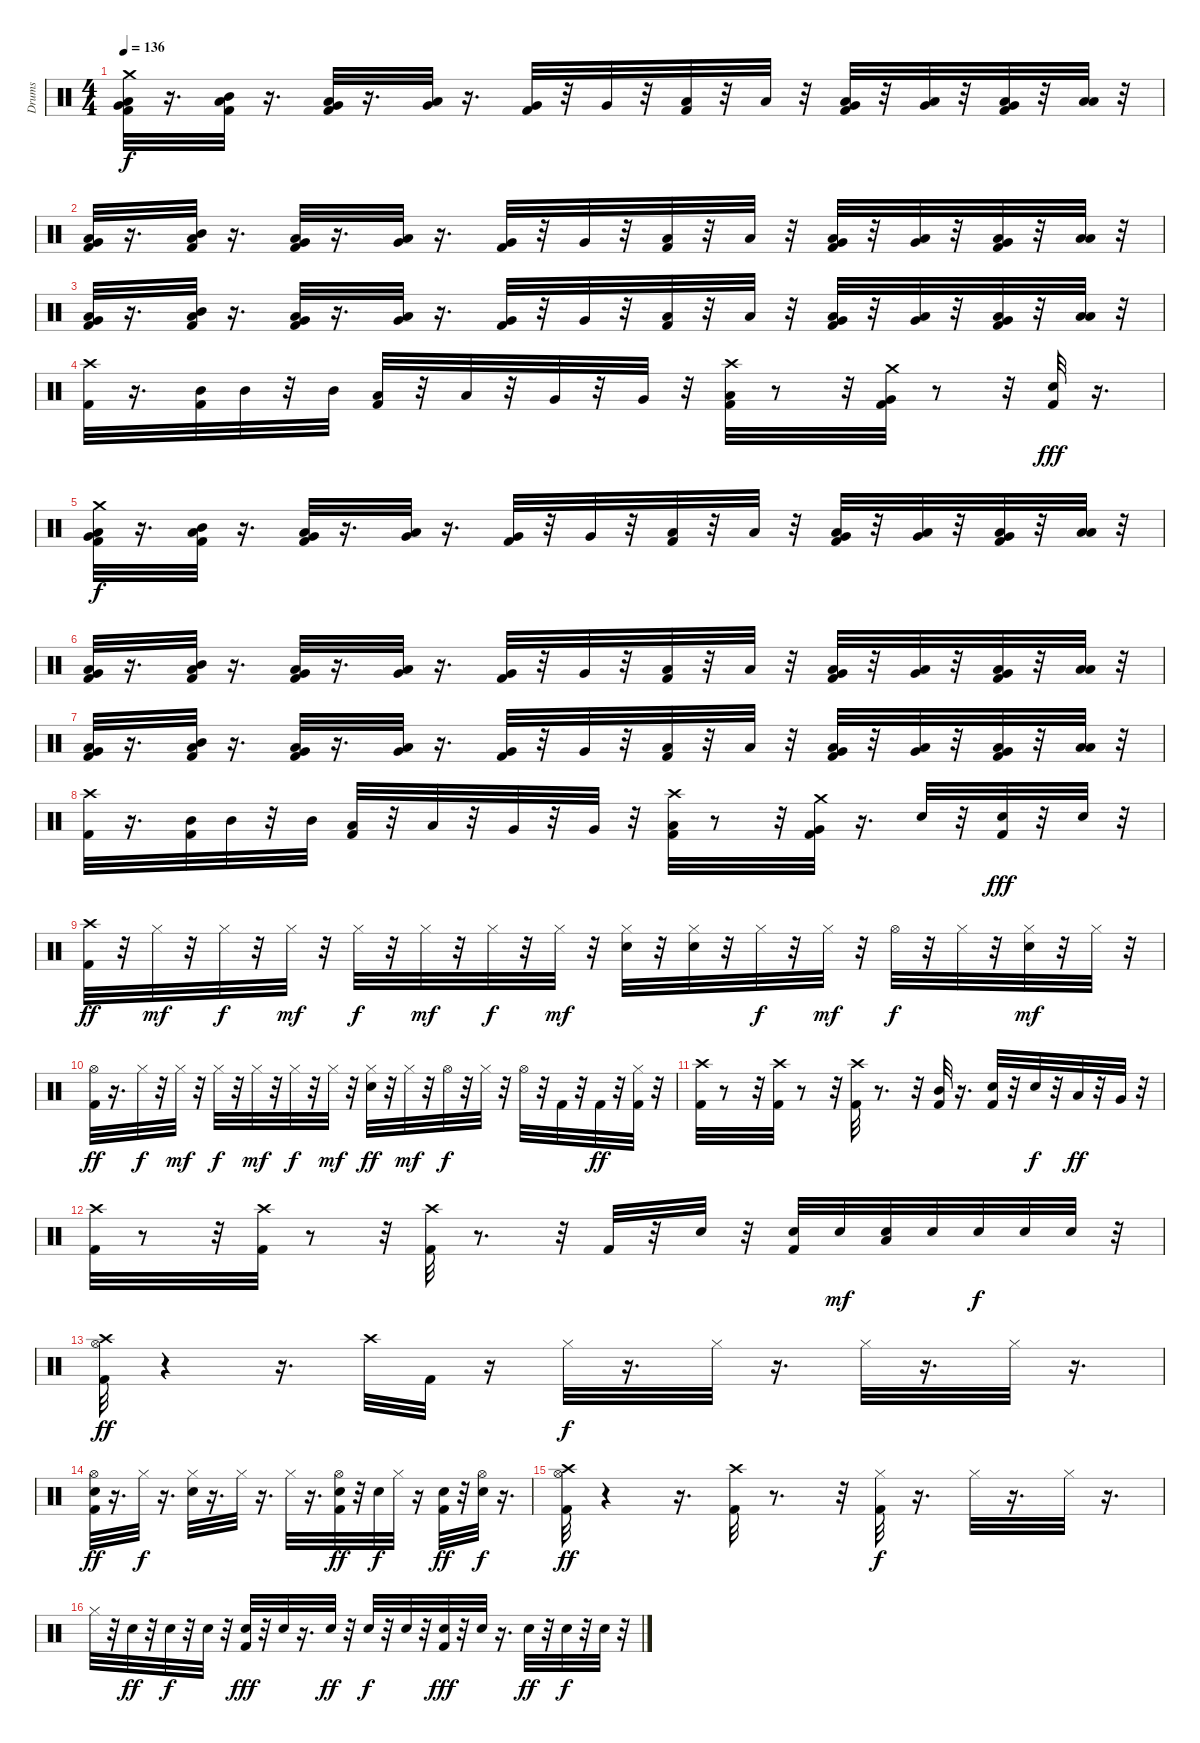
\track ("Drums" "Drums") {instrument percussion}
\staff {score}
\articulation defaults
\ts (4 4)
\tempo 136
\clef neutral
\ks c
("Crash medium (hit)" "Very Low Tom (hit)" "Low Tom (hit)" "Kick (hit) 2").32{dy f} r.16{d} ("Low Tom (hit)" "Mid Tom (hit)" "Kick (hit) 2").32 r.16{d} ("Very Low Tom (hit)" "Low Tom (hit)" "Kick (hit) 2").32 r.16{d} ("Very Low Tom (hit)" "Low Floor Tom (hit)").32 r.16{d} ("Very Low Tom (hit)" "Kick (hit) 2").32 r.32 "Very Low Tom (hit)".32 r.32 ("Low Tom (hit)" "Kick (hit) 2").32 r.32 "Low Tom (hit)".32 r.32 ("Very Low Tom (hit)" "Low Floor Tom (hit)" "Kick (hit) 2").32 r.32 ("Low Floor Tom (hit)" "Very Low Tom (hit)").32 r.32 ("Kick (hit) 2" "Very Low Tom (hit)" "Low Tom (hit)").32 r.32 ("Low Floor Tom (hit)" "Low Tom (hit)").32 r.32 |
("Very Low Tom (hit)" "Low Tom (hit)" "Kick (hit) 2").32 r.16{d} ("Low Tom (hit)" "Mid Tom (hit)" "Kick (hit) 2").32 r.16{d} ("Very Low Tom (hit)" "Low Tom (hit)" "Kick (hit) 2").32 r.16{d} ("Very Low Tom (hit)" "Low Floor Tom (hit)").32 r.16{d} ("Very Low Tom (hit)" "Kick (hit) 2").32 r.32 "Very Low Tom (hit)".32 r.32 ("Low Tom (hit)" "Kick (hit) 2").32 r.32 "Low Tom (hit)".32 r.32 ("Very Low Tom (hit)" "Low Floor Tom (hit)" "Kick (hit) 2").32 r.32 ("Low Floor Tom (hit)" "Very Low Tom (hit)").32 r.32 ("Kick (hit) 2" "Very Low Tom (hit)" "Low Tom (hit)").32 r.32 ("Low Floor Tom (hit)" "Low Tom (hit)").32 r.32 |
("Very Low Tom (hit)" "Low Tom (hit)" "Kick (hit) 2").32 r.16{d} ("Low Tom (hit)" "Mid Tom (hit)" "Kick (hit) 2").32 r.16{d} ("Very Low Tom (hit)" "Low Tom (hit)" "Kick (hit) 2").32 r.16{d} ("Very Low Tom (hit)" "Low Floor Tom (hit)").32 r.16{d} ("Very Low Tom (hit)" "Kick (hit) 2").32 r.32 "Very Low Tom (hit)".32 r.32 ("Low Tom (hit)" "Kick (hit) 2").32 r.32 "Low Tom (hit)".32 r.32 ("Very Low Tom (hit)" "Low Floor Tom (hit)" "Kick (hit) 2").32 r.32 ("Low Floor Tom (hit)" "Very Low Tom (hit)").32 r.32 ("Kick (hit) 2" "Very Low Tom (hit)" "Low Tom (hit)").32 r.32 ("Low Floor Tom (hit)" "Low Tom (hit)").32 r.32 |
("Crash high (hit)" "Kick (hit) 2").32 r.16{d} ("Mid Tom (hit)" "Kick (hit) 2").32 "Mid Tom (hit)".32 r.32 "Mid Tom (hit)".32 ("Low Tom (hit)" "Kick (hit) 2").32 r.32 "Low Tom (hit)".32 r.32 "Very Low Tom (hit)".32 r.32 "Very Low Tom (hit)".32 r.32 ("Low Tom (hit)" "Crash high (hit)" "Kick (hit) 2").32 r.8 r.32 ("Crash medium (hit)" "Very Low Tom (hit)" "Kick (hit) 2").32 r.8 r.32 ("Electric Snare (hit)" "Kick (hit) 2").32{dy fff} r.16{d} |
("Crash medium (hit)" "Very Low Tom (hit)" "Low Tom (hit)" "Kick (hit) 2").32{dy f} r.16{d} ("Low Tom (hit)" "Mid Tom (hit)" "Kick (hit) 2").32 r.16{d} ("Very Low Tom (hit)" "Low Tom (hit)" "Kick (hit) 2").32 r.16{d} ("Very Low Tom (hit)" "Low Floor Tom (hit)").32 r.16{d} ("Very Low Tom (hit)" "Kick (hit) 2").32 r.32 "Very Low Tom (hit)".32 r.32 ("Low Tom (hit)" "Kick (hit) 2").32 r.32 "Low Tom (hit)".32 r.32 ("Very Low Tom (hit)" "Low Floor Tom (hit)" "Kick (hit) 2").32 r.32 ("Low Floor Tom (hit)" "Very Low Tom (hit)").32 r.32 ("Kick (hit) 2" "Very Low Tom (hit)" "Low Tom (hit)").32 r.32 ("Low Floor Tom (hit)" "Low Tom (hit)").32 r.32 |
("Very Low Tom (hit)" "Low Tom (hit)" "Kick (hit) 2").32 r.16{d} ("Low Tom (hit)" "Mid Tom (hit)" "Kick (hit) 2").32 r.16{d} ("Very Low Tom (hit)" "Low Tom (hit)" "Kick (hit) 2").32 r.16{d} ("Very Low Tom (hit)" "Low Floor Tom (hit)").32 r.16{d} ("Very Low Tom (hit)" "Kick (hit) 2").32 r.32 "Very Low Tom (hit)".32 r.32 ("Low Tom (hit)" "Kick (hit) 2").32 r.32 "Low Tom (hit)".32 r.32 ("Very Low Tom (hit)" "Low Floor Tom (hit)" "Kick (hit) 2").32 r.32 ("Low Floor Tom (hit)" "Very Low Tom (hit)").32 r.32 ("Kick (hit) 2" "Very Low Tom (hit)" "Low Tom (hit)").32 r.32 ("Low Floor Tom (hit)" "Low Tom (hit)").32 r.32 |
("Very Low Tom (hit)" "Low Tom (hit)" "Kick (hit) 2").32 r.16{d} ("Low Tom (hit)" "Mid Tom (hit)" "Kick (hit) 2").32 r.16{d} ("Very Low Tom (hit)" "Low Tom (hit)" "Kick (hit) 2").32 r.16{d} ("Very Low Tom (hit)" "Low Floor Tom (hit)").32 r.16{d} ("Very Low Tom (hit)" "Kick (hit) 2").32 r.32 "Very Low Tom (hit)".32 r.32 ("Low Tom (hit)" "Kick (hit) 2").32 r.32 "Low Tom (hit)".32 r.32 ("Very Low Tom (hit)" "Low Floor Tom (hit)" "Kick (hit) 2").32 r.32 ("Low Floor Tom (hit)" "Very Low Tom (hit)").32 r.32 ("Kick (hit) 2" "Very Low Tom (hit)" "Low Tom (hit)").32 r.32 ("Low Floor Tom (hit)" "Low Tom (hit)").32 r.32 |
("Crash high (hit)" "Kick (hit) 2").32 r.16{d} ("Mid Tom (hit)" "Kick (hit) 2").32 "Mid Tom (hit)".32 r.32 "Mid Tom (hit)".32 ("Low Tom (hit)" "Kick (hit) 2").32 r.32 "Low Tom (hit)".32 r.32 "Very Low Tom (hit)".32 r.32 "Very Low Tom (hit)".32 r.32 ("Low Tom (hit)" "Crash high (hit)" "Kick (hit) 2").32 r.8 r.32 ("Crash medium (hit)" "Very Low Tom (hit)" "Kick (hit) 2").32 r.16{d} "Electric Snare (hit)".32 r.32 ("Electric Snare (hit)" "Kick (hit) 2").32{dy fff} r.32 "Electric Snare (hit)".32 r.32 |
("Crash high (hit)" "Kick (hit) 2").32{dy ff} r.32 "Hi-Hat (closed)".32{dy mf} r.32 "Hi-Hat (closed)".32{dy f} r.32 "Hi-Hat (closed)".32{dy mf} r.32 "Hi-Hat (closed)".32{dy f} r.32 "Hi-Hat (closed)".32{dy mf} r.32 "Hi-Hat (closed)".32{dy f} r.32 "Hi-Hat (closed)".32{dy mf} r.32 ("Electric Snare (hit)" "Hi-Hat (closed)").32 r.32 ("Electric Snare (hit)" "Hi-Hat (closed)").32 r.32 "Hi-Hat (closed)".32{dy f} r.32 "Hi-Hat (closed)".32{dy mf} r.32 "Hi-Hat (open)".32{dy f} r.32 "Hi-Hat (closed)".32 r.32 ("Electric Snare (hit)" "Hi-Hat (closed)").32{dy mf} r.32 "Hi-Hat (closed)".32 r.32 |
("Hi-Hat (open)" "Kick (hit) 2").32{dy ff} r.16{d} "Hi-Hat (closed)".32{dy f} r.32 "Hi-Hat (closed)".32{dy mf} r.32 "Hi-Hat (closed)".32{dy f} r.32 "Hi-Hat (closed)".32{dy mf} r.32 "Hi-Hat (closed)".32{dy f} r.32 "Hi-Hat (closed)".32{dy mf} r.32 ("Electric Snare (hit)" "Hi-Hat (closed)").32{dy ff} r.32 "Hi-Hat (closed)".32{dy mf} r.32 "Hi-Hat (open)".32{dy f} r.32 "Hi-Hat (closed)".32 r.32 "Hi-Hat (open)".32 r.32 "Kick (hit) 2".32 r.32 "Kick (hit) 2".32{dy ff} r.32 ("Hi-Hat (closed)" "Kick (hit) 2").32 r.32 |
("Crash high (hit)" "Kick (hit) 2").32 r.8 r.32 ("Crash high (hit)" "Kick (hit) 2").32 r.8 r.32 ("Crash high (hit)" "Kick (hit) 2").32 r.8{d} r.32 ("Mid Tom (hit)" "Kick (hit) 2").32 r.16{d} ("Electric Snare (hit)" "Kick (hit) 2").32 r.32 "Electric Snare (hit)".32{dy f} r.32 "Low Tom (hit)".32{dy ff} r.32 "Very Low Tom (hit)".32 r.32 |
("Crash high (hit)" "Kick (hit) 2").32 r.8 r.32 ("Crash high (hit)" "Kick (hit) 2").32 r.8 r.32 ("Crash high (hit)" "Kick (hit) 2").32 r.8{d} r.32 "Kick (hit) 2".32 r.32 "Electric Snare (hit)".32 r.32 ("Electric Snare (hit)" "Kick (hit) 2").32 "Electric Snare (hit)".32{dy mf} ("Electric Snare (hit)" "Low Tom (hit)").32 "Electric Snare (hit)".32 "Electric Snare (hit)".32{dy f} "Electric Snare (hit)".32 "Electric Snare (hit)".32 r.32 |
("Hi-Hat (open)" "Crash high (hit)" "Kick (hit) 2").32{dy ff} r.4 r.16{d} "Crash high (hit)".32 "Kick (hit) 2".32 r.16 "Hi-Hat (closed)".32{dy f} r.16{d} "Hi-Hat (closed)".32 r.16{d} "Hi-Hat (closed)".32 r.16{d} "Hi-Hat (closed)".32 r.16{d} |
("Electric Snare (hit)" "Hi-Hat (open)" "Kick (hit) 2").32{dy ff} r.16{d} "Hi-Hat (closed)".32{dy f} r.16{d} ("Electric Snare (hit)" "Hi-Hat (closed)").32 r.16{d} "Hi-Hat (closed)".32 r.16{d} "Hi-Hat (closed)".32 r.16{d} ("Electric Snare (hit)" "Hi-Hat (open)" "Kick (hit) 2").32{dy ff} r.32 "Electric Snare (hit)".32{dy f} "Hi-Hat (closed)".32 r.16 ("Electric Snare (hit)" "Kick (hit) 2").32{dy ff} r.32 ("Electric Snare (hit)" "Hi-Hat (open)").32{dy f} r.16{d} |
("Crash high (hit)" "Hi-Hat (open)" "Kick (hit) 2").32{dy ff} r.4 r.16{d} ("Crash high (hit)" "Kick (hit) 2").32 r.8{d} r.32 ("Hi-Hat (closed)" "Kick (hit) 2").32{dy f} r.16{d} "Hi-Hat (closed)".32 r.16{d} "Hi-Hat (closed)".32 r.16{d} |
"Hi-Hat (closed)".32 r.32 "Electric Snare (hit)".32{dy ff} r.32 "Electric Snare (hit)".32{dy f} r.32 "Electric Snare (hit)".32 r.32 ("Electric Snare (hit)" "Kick (hit) 2").32{dy fff} r.32 "Electric Snare (hit)".32 r.16{d} "Electric Snare (hit)".32{dy ff} r.32 "Electric Snare (hit)".32{dy f} r.32 "Electric Snare (hit)".32 r.32 ("Electric Snare (hit)" "Kick (hit) 2").32{dy fff} r.32 "Electric Snare (hit)".32 r.16{d} "Electric Snare (hit)".32{dy ff} r.32 "Electric Snare (hit)".32{dy f} r.32 "Electric Snare (hit)".32 r.32
